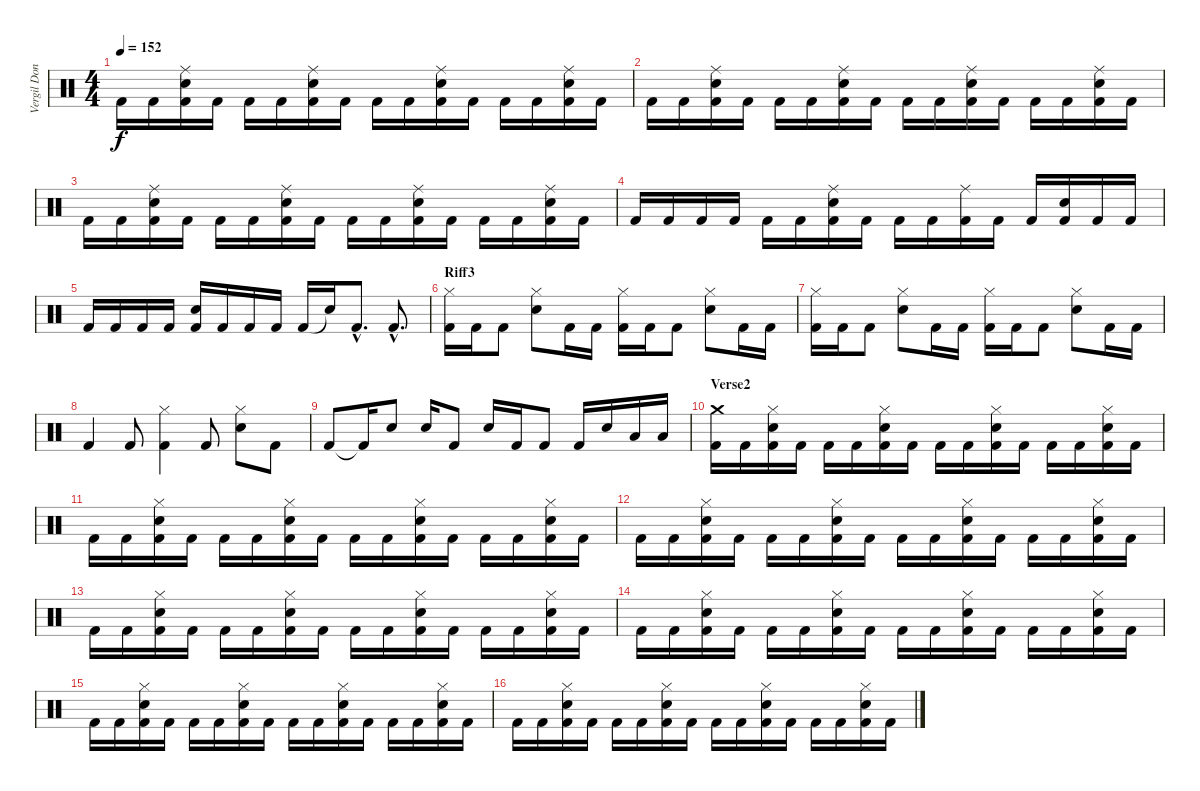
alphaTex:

\track ("Vergil Donati" "Vergil Don") {instrument percussion}
\staff {score}
\articulation defaults
\ts (4 4)
\tempo 152
\clef neutral
\ks c "Kick (hit) 2".16{dy f} "Kick (hit) 2".16
("Electric Snare (hit)" "Ride (middle)" "Kick (hit) 2").16 "Kick (hit) 2".16 "Kick (hit) 2".16 "Kick (hit) 2".16 ("Electric Snare (hit)" "Ride (middle)" "Kick (hit) 2").16 "Kick (hit) 2".16 "Kick (hit) 2".16 "Kick (hit) 2".16 ("Electric Snare (hit)" "Ride (middle)" "Kick (hit) 2").16 "Kick (hit) 2".16 "Kick (hit) 2".16 "Kick (hit) 2".16 ("Electric Snare (hit)" "Ride (middle)" "Kick (hit) 2").16 "Kick (hit) 2".16 |
"Kick (hit) 2".16 "Kick (hit) 2".16 ("Electric Snare (hit)" "Ride (middle)" "Kick (hit) 2").16 "Kick (hit) 2".16 "Kick (hit) 2".16 "Kick (hit) 2".16 ("Electric Snare (hit)" "Ride (middle)" "Kick (hit) 2").16 "Kick (hit) 2".16 "Kick (hit) 2".16 "Kick (hit) 2".16 ("Electric Snare (hit)" "Ride (middle)" "Kick (hit) 2").16 "Kick (hit) 2".16 "Kick (hit) 2".16 "Kick (hit) 2".16 ("Electric Snare (hit)" "Ride (middle)" "Kick (hit) 2").16 "Kick (hit) 2".16 |
"Kick (hit) 2".16 "Kick (hit) 2".16 ("Electric Snare (hit)" "Ride (middle)" "Kick (hit) 2").16 "Kick (hit) 2".16 "Kick (hit) 2".16 "Kick (hit) 2".16 ("Electric Snare (hit)" "Ride (middle)" "Kick (hit) 2").16 "Kick (hit) 2".16 "Kick (hit) 2".16 "Kick (hit) 2".16 ("Electric Snare (hit)" "Ride (middle)" "Kick (hit) 2").16 "Kick (hit) 2".16 "Kick (hit) 2".16 "Kick (hit) 2".16 ("Electric Snare (hit)" "Ride (middle)" "Kick (hit) 2").16 "Kick (hit) 2".16 |
"Kick (hit) 2".16 "Kick (hit) 2".16 "Kick (hit) 2".16 "Kick (hit) 2".16 "Kick (hit) 2".16 "Kick (hit) 2".16 ("Electric Snare (hit)" "Ride (middle)" "Kick (hit) 2").16 "Kick (hit) 2".16 "Kick (hit) 2".16 "Kick (hit) 2".16 ("Ride (middle)" "Kick (hit) 2").16 "Kick (hit) 2".16 "Kick (hit) 2".16 ("Electric Snare (hit)" "Kick (hit) 2").16 "Kick (hit) 2".16 "Kick (hit) 2".16 |
"Kick (hit) 2".16 "Kick (hit) 2".16 "Kick (hit) 2".16 "Kick (hit) 2".16 ("Electric Snare (hit)" "Kick (hit) 2").16 "Kick (hit) 2".16 "Kick (hit) 2".16 "Kick (hit) 2".16 "Kick (hit) 2".16 "Snare (hit)"{t}.16 "Kick (hit) 2"{hac}.8{d} "Kick (hit) 2"{hac}.8{d} |
\section ("" "Riff3")
("Hi-Hat (closed)" "Kick (hit) 2").16 "Kick (hit) 2".16 "Kick (hit) 2".8 ("Electric Snare (hit)" "Hi-Hat (closed)").8 "Kick (hit) 2".16 "Kick (hit) 2".16 ("Hi-Hat (closed)" "Kick (hit) 2").16 "Kick (hit) 2".16 "Kick (hit) 2".8 ("Electric Snare (hit)" "Hi-Hat (closed)").8 "Kick (hit) 2".16 "Kick (hit) 2".16 |
("Hi-Hat (closed)" "Kick (hit) 2").16 "Kick (hit) 2".16 "Kick (hit) 2".8 ("Electric Snare (hit)" "Hi-Hat (closed)").8 "Kick (hit) 2".16 "Kick (hit) 2".16 ("Hi-Hat (closed)" "Kick (hit) 2").16 "Kick (hit) 2".16 "Kick (hit) 2".8 ("Electric Snare (hit)" "Hi-Hat (closed)").8 "Kick (hit) 2".16 "Kick (hit) 2".16 |
"Kick (hit) 2".4 "Kick (hit) 2".8 ("Hi-Hat (closed)" "Kick (hit) 2").4 "Kick (hit) 2".8 ("Hi-Hat (closed)" "Snare (hit) 2").8 "Kick (hit) 2".8 |
"Kick (hit) 2".8 "Kick (hit) 2"{t}.16 "Electric Snare (hit)".8 "Electric Snare (hit)".16 "Kick (hit) 2".8 "Electric Snare (hit)".16 "Kick (hit) 2".16 "Kick (hit) 2".8 "Kick (hit) 2".16 "Electric Snare (hit)".16 "Low Floor Tom (hit)".16 "Low Floor Tom (hit)".16 |
\section ("" "Verse2")
("Crash medium (hit)" "Kick (hit) 2").16 "Kick (hit) 2".16 ("Electric Snare (hit)" "Hi-Hat (closed)" "Kick (hit) 2").16 "Kick (hit) 2".16 "Kick (hit) 2".16 "Kick (hit) 2".16 ("Electric Snare (hit)" "Hi-Hat (closed)" "Kick (hit) 2").16 "Kick (hit) 2".16 "Kick (hit) 2".16 "Kick (hit) 2".16 ("Electric Snare (hit)" "Hi-Hat (closed)" "Kick (hit) 2").16 "Kick (hit) 2".16 "Kick (hit) 2".16 "Kick (hit) 2".16 ("Electric Snare (hit)" "Hi-Hat (closed)" "Kick (hit) 2").16 "Kick (hit) 2".16 |
"Kick (hit) 2".16 "Kick (hit) 2".16 ("Electric Snare (hit)" "Hi-Hat (closed)" "Kick (hit) 2").16 "Kick (hit) 2".16 "Kick (hit) 2".16 "Kick (hit) 2".16 ("Electric Snare (hit)" "Hi-Hat (closed)" "Kick (hit) 2").16 "Kick (hit) 2".16 "Kick (hit) 2".16 "Kick (hit) 2".16 ("Electric Snare (hit)" "Hi-Hat (closed)" "Kick (hit) 2").16 "Kick (hit) 2".16 "Kick (hit) 2".16 "Kick (hit) 2".16 ("Electric Snare (hit)" "Hi-Hat (closed)" "Kick (hit) 2").16 "Kick (hit) 2".16 |
"Kick (hit) 2".16 "Kick (hit) 2".16 ("Electric Snare (hit)" "Hi-Hat (closed)" "Kick (hit) 2").16 "Kick (hit) 2".16 "Kick (hit) 2".16 "Kick (hit) 2".16 ("Electric Snare (hit)" "Hi-Hat (closed)" "Kick (hit) 2").16 "Kick (hit) 2".16 "Kick (hit) 2".16 "Kick (hit) 2".16 ("Electric Snare (hit)" "Hi-Hat (closed)" "Kick (hit) 2").16 "Kick (hit) 2".16 "Kick (hit) 2".16 "Kick (hit) 2".16 ("Electric Snare (hit)" "Hi-Hat (closed)" "Kick (hit) 2").16 "Kick (hit) 2".16 |
"Kick (hit) 2".16 "Kick (hit) 2".16 ("Electric Snare (hit)" "Hi-Hat (closed)" "Kick (hit) 2").16 "Kick (hit) 2".16 "Kick (hit) 2".16 "Kick (hit) 2".16 ("Electric Snare (hit)" "Hi-Hat (closed)" "Kick (hit) 2").16 "Kick (hit) 2".16 "Kick (hit) 2".16 "Kick (hit) 2".16 ("Electric Snare (hit)" "Hi-Hat (closed)" "Kick (hit) 2").16 "Kick (hit) 2".16 "Kick (hit) 2".16 "Kick (hit) 2".16 ("Electric Snare (hit)" "Hi-Hat (closed)" "Kick (hit) 2").16 "Kick (hit) 2".16 |
"Kick (hit) 2".16 "Kick (hit) 2".16 ("Electric Snare (hit)" "Hi-Hat (closed)" "Kick (hit) 2").16 "Kick (hit) 2".16 "Kick (hit) 2".16 "Kick (hit) 2".16 ("Electric Snare (hit)" "Hi-Hat (closed)" "Kick (hit) 2").16 "Kick (hit) 2".16 "Kick (hit) 2".16 "Kick (hit) 2".16 ("Electric Snare (hit)" "Hi-Hat (closed)" "Kick (hit) 2").16 "Kick (hit) 2".16 "Kick (hit) 2".16 "Kick (hit) 2".16 ("Electric Snare (hit)" "Hi-Hat (closed)" "Kick (hit) 2").16 "Kick (hit) 2".16 |
"Kick (hit) 2".16 "Kick (hit) 2".16 ("Electric Snare (hit)" "Hi-Hat (closed)" "Kick (hit) 2").16 "Kick (hit) 2".16 "Kick (hit) 2".16 "Kick (hit) 2".16 ("Electric Snare (hit)" "Hi-Hat (closed)" "Kick (hit) 2").16 "Kick (hit) 2".16 "Kick (hit) 2".16 "Kick (hit) 2".16 ("Electric Snare (hit)" "Hi-Hat (closed)" "Kick (hit) 2").16 "Kick (hit) 2".16 "Kick (hit) 2".16 "Kick (hit) 2".16 ("Electric Snare (hit)" "Hi-Hat (closed)" "Kick (hit) 2").16 "Kick (hit) 2".16 |
"Kick (hit) 2".16 "Kick (hit) 2".16 ("Electric Snare (hit)" "Hi-Hat (closed)" "Kick (hit) 2").16 "Kick (hit) 2".16 "Kick (hit) 2".16 "Kick (hit) 2".16 ("Electric Snare (hit)" "Hi-Hat (closed)" "Kick (hit) 2").16 "Kick (hit) 2".16 "Kick (hit) 2".16 "Kick (hit) 2".16 ("Electric Snare (hit)" "Hi-Hat (closed)" "Kick (hit) 2").16 "Kick (hit) 2".16 "Kick (hit) 2".16 "Kick (hit) 2".16 ("Electric Snare (hit)" "Hi-Hat (closed)" "Kick (hit) 2").16 "Kick (hit) 2".16
